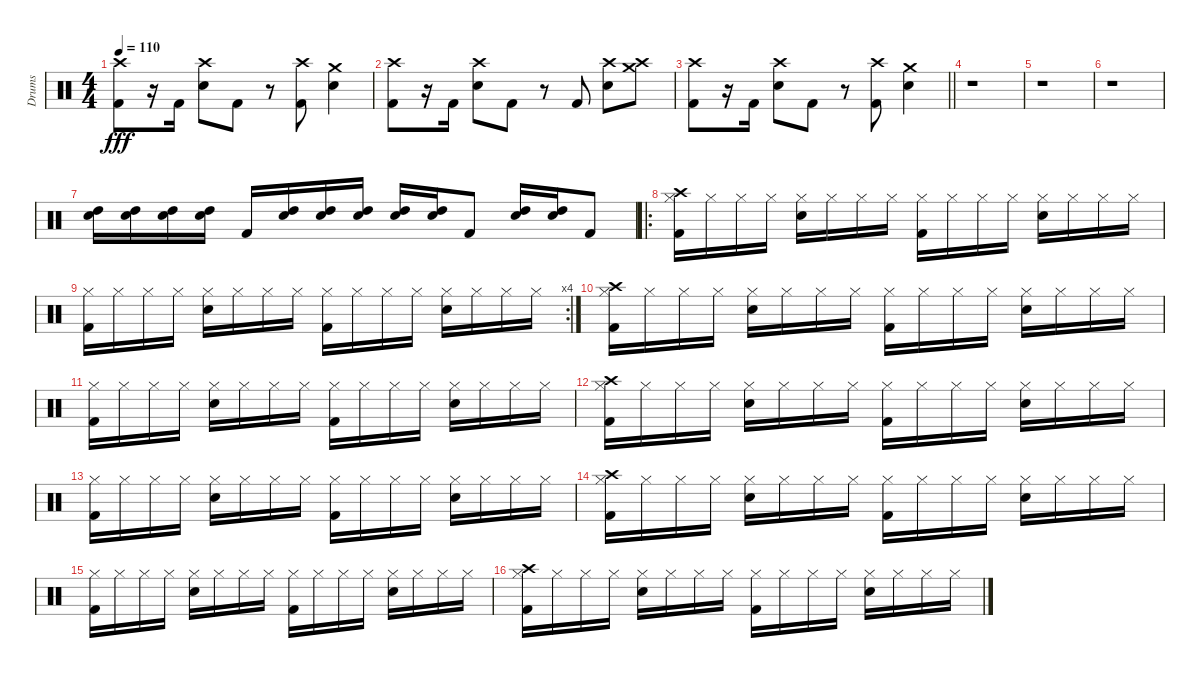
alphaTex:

\track ("Drums" "Drums") {instrument percussion}
\staff {score}
\articulation defaults
\ts (4 4)
\tempo 110
\clef neutral
\ks c
("Crash high (hit)" "Kick (hit) 2").8{dy fff} r.16 "Kick (hit) 2".16 ("Crash high (hit)" "Electric Snare (hit)").8 "Kick (hit) 2".8 r.8 ("Crash high (hit)" "Kick (hit) 2").8 ("Crash medium (hit)" "Electric Snare (hit)").4 |
("Crash high (hit)" "Kick (hit) 2").8 r.16 "Kick (hit) 2".16 ("Crash high (hit)" "Electric Snare (hit)").8 "Kick (hit) 2".8 r.8 "Kick (hit) 2".8 ("Crash high (hit)" "Electric Snare (hit)").8 ("Crash high (hit)" "Crash medium (hit)").8 |
\barLineRight lightlight
("Crash high (hit)" "Kick (hit) 2").8 r.16 "Kick (hit) 2".16 ("Crash high (hit)" "Electric Snare (hit)").8 "Kick (hit) 2".8 r.8 ("Crash high (hit)" "Kick (hit) 2").8 ("Crash medium (hit)" "Electric Snare (hit)").4 |
r.1 |
r.1 |
r.1 |
("High Tom (hit)" "Electric Snare (hit)").16 ("High Tom (hit)" "Electric Snare (hit)").16 ("High Tom (hit)" "Electric Snare (hit)").16 ("High Tom (hit)" "Electric Snare (hit)").16 "Kick (hit) 2".16 ("High Tom (hit)" "Electric Snare (hit)").16 ("High Tom (hit)" "Electric Snare (hit)").16 ("High Tom (hit)" "Electric Snare (hit)").16 ("High Tom (hit)" "Electric Snare (hit)").16 ("High Tom (hit)" "Electric Snare (hit)").16 "Kick (hit) 2".8 ("High Tom (hit)" "Electric Snare (hit)").16 ("High Tom (hit)" "Electric Snare (hit)").16 "Kick (hit) 2".8 |
\ro
("Crash high (hit)" "Hi-Hat (closed)" "Kick (hit) 2").16 "Hi-Hat (closed)".16 "Hi-Hat (closed)".16 "Hi-Hat (closed)".16 ("Hi-Hat (closed)" "Electric Snare (hit)").16 "Hi-Hat (closed)".16 "Hi-Hat (closed)".16 "Hi-Hat (closed)".16 ("Hi-Hat (closed)" "Kick (hit) 2").16 "Hi-Hat (closed)".16 "Hi-Hat (closed)".16 "Hi-Hat (closed)".16 ("Hi-Hat (closed)" "Electric Snare (hit)").16 "Hi-Hat (closed)".16 "Hi-Hat (closed)".16 "Hi-Hat (closed)".16 |
\rc 4
("Hi-Hat (closed)" "Kick (hit) 2").16 "Hi-Hat (closed)".16 "Hi-Hat (closed)".16 "Hi-Hat (closed)".16 ("Hi-Hat (closed)" "Electric Snare (hit)").16 "Hi-Hat (closed)".16 "Hi-Hat (closed)".16 "Hi-Hat (closed)".16 ("Hi-Hat (closed)" "Kick (hit) 2").16 "Hi-Hat (closed)".16 "Hi-Hat (closed)".16 "Hi-Hat (closed)".16 ("Hi-Hat (closed)" "Electric Snare (hit)").16 "Hi-Hat (closed)".16 "Hi-Hat (closed)".16 "Hi-Hat (closed)".16 |
("Crash high (hit)" "Hi-Hat (closed)" "Kick (hit) 2").16 "Hi-Hat (closed)".16 "Hi-Hat (closed)".16 "Hi-Hat (closed)".16 ("Hi-Hat (closed)" "Electric Snare (hit)").16 "Hi-Hat (closed)".16 "Hi-Hat (closed)".16 "Hi-Hat (closed)".16 ("Hi-Hat (closed)" "Kick (hit) 2").16 "Hi-Hat (closed)".16 "Hi-Hat (closed)".16 "Hi-Hat (closed)".16 ("Hi-Hat (closed)" "Electric Snare (hit)").16 "Hi-Hat (closed)".16 "Hi-Hat (closed)".16 "Hi-Hat (closed)".16 |
("Hi-Hat (closed)" "Kick (hit) 2").16 "Hi-Hat (closed)".16 "Hi-Hat (closed)".16 "Hi-Hat (closed)".16 ("Hi-Hat (closed)" "Electric Snare (hit)").16 "Hi-Hat (closed)".16 "Hi-Hat (closed)".16 "Hi-Hat (closed)".16 ("Hi-Hat (closed)" "Kick (hit) 2").16 "Hi-Hat (closed)".16 "Hi-Hat (closed)".16 "Hi-Hat (closed)".16 ("Hi-Hat (closed)" "Electric Snare (hit)").16 "Hi-Hat (closed)".16 "Hi-Hat (closed)".16 "Hi-Hat (closed)".16 |
("Crash high (hit)" "Hi-Hat (closed)" "Kick (hit) 2").16 "Hi-Hat (closed)".16 "Hi-Hat (closed)".16 "Hi-Hat (closed)".16 ("Hi-Hat (closed)" "Electric Snare (hit)").16 "Hi-Hat (closed)".16 "Hi-Hat (closed)".16 "Hi-Hat (closed)".16 ("Hi-Hat (closed)" "Kick (hit) 2").16 "Hi-Hat (closed)".16 "Hi-Hat (closed)".16 "Hi-Hat (closed)".16 ("Hi-Hat (closed)" "Electric Snare (hit)").16 "Hi-Hat (closed)".16 "Hi-Hat (closed)".16 "Hi-Hat (closed)".16 |
("Hi-Hat (closed)" "Kick (hit) 2").16 "Hi-Hat (closed)".16 "Hi-Hat (closed)".16 "Hi-Hat (closed)".16 ("Hi-Hat (closed)" "Electric Snare (hit)").16 "Hi-Hat (closed)".16 "Hi-Hat (closed)".16 "Hi-Hat (closed)".16 ("Hi-Hat (closed)" "Kick (hit) 2").16 "Hi-Hat (closed)".16 "Hi-Hat (closed)".16 "Hi-Hat (closed)".16 ("Hi-Hat (closed)" "Electric Snare (hit)").16 "Hi-Hat (closed)".16 "Hi-Hat (closed)".16 "Hi-Hat (closed)".16 |
("Crash high (hit)" "Hi-Hat (closed)" "Kick (hit) 2").16 "Hi-Hat (closed)".16 "Hi-Hat (closed)".16 "Hi-Hat (closed)".16 ("Hi-Hat (closed)" "Electric Snare (hit)").16 "Hi-Hat (closed)".16 "Hi-Hat (closed)".16 "Hi-Hat (closed)".16 ("Hi-Hat (closed)" "Kick (hit) 2").16 "Hi-Hat (closed)".16 "Hi-Hat (closed)".16 "Hi-Hat (closed)".16 ("Hi-Hat (closed)" "Electric Snare (hit)").16 "Hi-Hat (closed)".16 "Hi-Hat (closed)".16 "Hi-Hat (closed)".16 |
("Hi-Hat (closed)" "Kick (hit) 2").16 "Hi-Hat (closed)".16 "Hi-Hat (closed)".16 "Hi-Hat (closed)".16 ("Hi-Hat (closed)" "Electric Snare (hit)").16 "Hi-Hat (closed)".16 "Hi-Hat (closed)".16 "Hi-Hat (closed)".16 ("Hi-Hat (closed)" "Kick (hit) 2").16 "Hi-Hat (closed)".16 "Hi-Hat (closed)".16 "Hi-Hat (closed)".16 ("Hi-Hat (closed)" "Electric Snare (hit)").16 "Hi-Hat (closed)".16 "Hi-Hat (closed)".16 "Hi-Hat (closed)".16 |
("Crash high (hit)" "Hi-Hat (closed)" "Kick (hit) 2").16 "Hi-Hat (closed)".16 "Hi-Hat (closed)".16 "Hi-Hat (closed)".16 ("Hi-Hat (closed)" "Electric Snare (hit)").16 "Hi-Hat (closed)".16 "Hi-Hat (closed)".16 "Hi-Hat (closed)".16 ("Hi-Hat (closed)" "Kick (hit) 2").16 "Hi-Hat (closed)".16 "Hi-Hat (closed)".16 "Hi-Hat (closed)".16 ("Hi-Hat (closed)" "Electric Snare (hit)").16 "Hi-Hat (closed)".16 "Hi-Hat (closed)".16 "Hi-Hat (closed)".16
